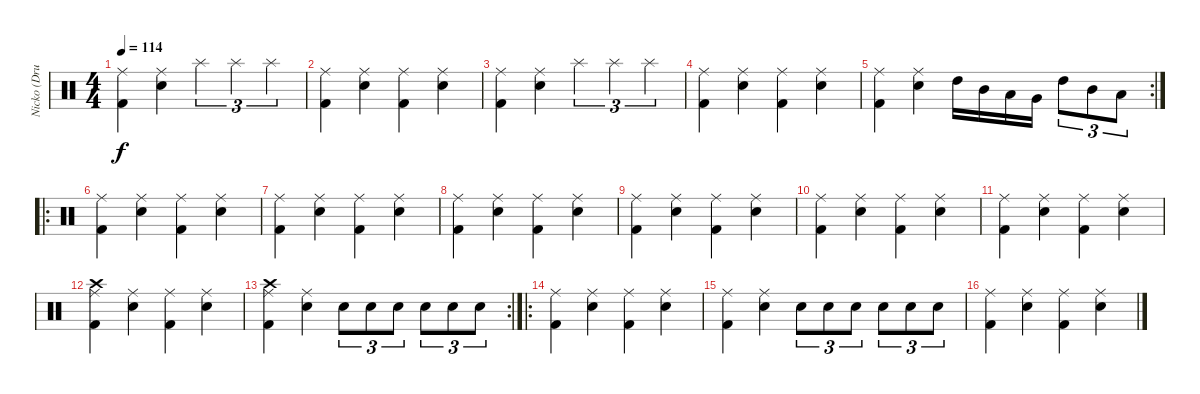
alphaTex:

\track ("Nicko (Drums)" "Nicko (Dru") {instrument percussion}
\staff {score}
\articulation defaults
\ts (4 4)
\tempo 114
\clef neutral
\ks c
("Ride (middle)" "Kick (hit) 2").4{dy f} ("Ride (middle)" "Snare (hit) 2").4 "Splash (hit)".4{tu (3 2)} "Splash (hit)".4{tu (3 2)} "Splash (hit)".4{tu (3 2)} |
("Ride (middle)" "Kick (hit) 2").4 ("Ride (middle)" "Snare (hit) 2").4 ("Ride (middle)" "Kick (hit) 2").4 ("Ride (middle)" "Snare (hit) 2").4 |
("Ride (middle)" "Kick (hit) 2").4 ("Ride (middle)" "Snare (hit) 2").4 "Splash (hit)".4{tu (3 2)} "Splash (hit)".4{tu (3 2)} "Splash (hit)".4{tu (3 2)} |
("Ride (middle)" "Kick (hit) 2").4 ("Ride (middle)" "Snare (hit) 2").4 ("Ride (middle)" "Kick (hit) 2").4 ("Ride (middle)" "Snare (hit) 2").4 |
\rc 2
("Ride (middle)" "Kick (hit) 2").4 ("Ride (middle)" "Snare (hit) 2").4 "High Tom (hit)".16 "Mid Tom (hit)".16 "Low Tom (hit)".16 "Very Low Tom (hit)".16 "High Tom (hit)".8{tu (3 2)} "Mid Tom (hit)".8{tu (3 2)} "Low Tom (hit)".8{tu (3 2)} |
\ro
("Ride (middle)" "Kick (hit) 2").4 ("Ride (middle)" "Snare (hit) 2").4 ("Ride (middle)" "Kick (hit) 2").4 ("Ride (middle)" "Snare (hit) 2").4 |
("Ride (middle)" "Kick (hit) 2").4 ("Ride (middle)" "Snare (hit) 2").4 ("Ride (middle)" "Kick (hit) 2").4 ("Ride (middle)" "Snare (hit) 2").4 |
("Ride (middle)" "Kick (hit) 2").4 ("Ride (middle)" "Snare (hit) 2").4 ("Ride (middle)" "Kick (hit) 2").4 ("Ride (middle)" "Snare (hit) 2").4 |
("Ride (middle)" "Kick (hit) 2").4 ("Ride (middle)" "Snare (hit) 2").4 ("Ride (middle)" "Kick (hit) 2").4 ("Ride (middle)" "Snare (hit) 2").4 |
("Ride (middle)" "Kick (hit) 2").4 ("Ride (middle)" "Snare (hit) 2").4 ("Ride (middle)" "Kick (hit) 2").4 ("Ride (middle)" "Snare (hit) 2").4 |
("Ride (middle)" "Kick (hit) 2").4 ("Ride (middle)" "Snare (hit) 2").4 ("Ride (middle)" "Kick (hit) 2").4 ("Ride (middle)" "Snare (hit) 2").4 |
("Ride (middle)" "Kick (hit) 2" "Crash high (hit)").4 ("Ride (middle)" "Snare (hit) 2").4 ("Ride (middle)" "Kick (hit) 2").4 ("Ride (middle)" "Snare (hit) 2").4 |
\rc 2
("Ride (middle)" "Kick (hit) 2" "Crash high (hit)").4 ("Ride (middle)" "Snare (hit) 2").4 "Snare (hit) 2".8{tu (3 2)} "Snare (hit) 2".8{tu (3 2)} "Snare (hit) 2".8{tu (3 2)} "Snare (hit) 2".8{tu (3 2)} "Snare (hit) 2".8{tu (3 2)} "Snare (hit) 2".8{tu (3 2)} |
\ro
("Ride (middle)" "Kick (hit) 2").4 ("Ride (middle)" "Snare (hit) 2").4 ("Ride (middle)" "Kick (hit) 2").4 ("Ride (middle)" "Snare (hit) 2").4 |
("Ride (middle)" "Kick (hit) 2").4 ("Ride (middle)" "Snare (hit) 2").4 "Snare (hit) 2".8{tu (3 2)} "Snare (hit) 2".8{tu (3 2)} "Snare (hit) 2".8{tu (3 2)} "Snare (hit) 2".8{tu (3 2)} "Snare (hit) 2".8{tu (3 2)} "Snare (hit) 2".8{tu (3 2)} |
("Ride (middle)" "Kick (hit) 2").4 ("Ride (middle)" "Snare (hit) 2").4 ("Ride (middle)" "Kick (hit) 2").4 ("Ride (middle)" "Snare (hit) 2").4
